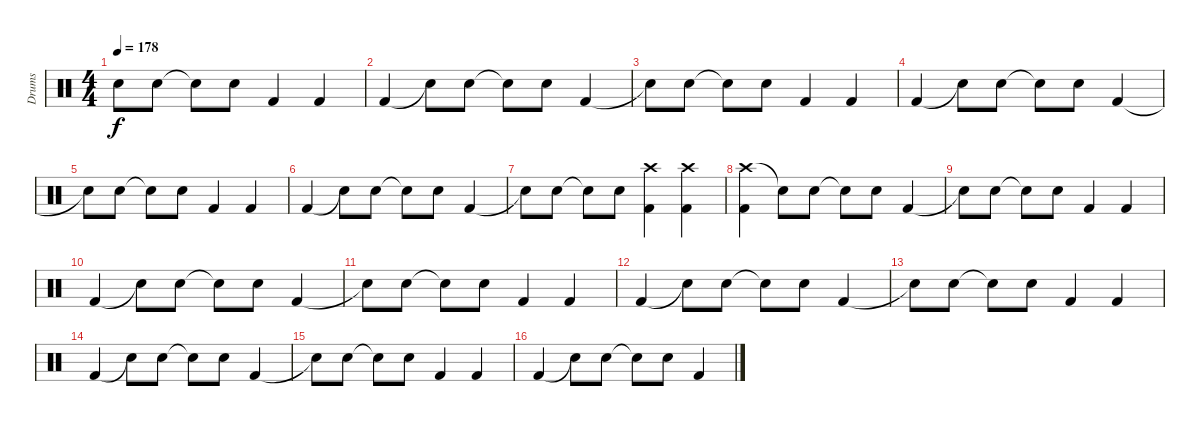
\track ("Drums" "Drums") {instrument percussion}
\staff {score}
\articulation defaults
\ts (4 4)
\tempo 178
\clef neutral
\ks c "Snare (hit)"{t}.8{dy f} "Electric Snare (hit)".8 "Snare (hit)"{t}.8 "Electric Snare (hit)".8 "Kick (hit) 2".4 "Kick (hit) 2".4
|
"Kick (hit) 2".4 "Snare (hit)"{t}.8 "Electric Snare (hit)".8 "Snare (hit)"{t}.8 "Electric Snare (hit)".8 "Kick (hit) 2".4 |
"Snare (hit)"{t}.8 "Electric Snare (hit)".8 "Snare (hit)"{t}.8 "Electric Snare (hit)".8 "Kick (hit) 2".4 "Kick (hit) 2".4 |
"Kick (hit) 2".4 "Snare (hit)"{t}.8 "Electric Snare (hit)".8 "Snare (hit)"{t}.8 "Electric Snare (hit)".8 "Kick (hit) 2".4 |
"Snare (hit)"{t}.8 "Electric Snare (hit)".8 "Snare (hit)"{t}.8 "Electric Snare (hit)".8 "Kick (hit) 2".4 "Kick (hit) 2".4 |
"Kick (hit) 2".4 "Snare (hit)"{t}.8 "Electric Snare (hit)".8 "Snare (hit)"{t}.8 "Electric Snare (hit)".8 "Kick (hit) 2".4 |
"Snare (hit)"{t}.8 "Electric Snare (hit)".8 "Snare (hit)"{t}.8 "Electric Snare (hit)".8 ("Crash high (hit)" "Kick (hit) 2").4 ("Crash high (hit)" "Kick (hit) 2").4 |
("Crash high (hit)" "Kick (hit) 2").4 "Snare (hit)"{t}.8 "Electric Snare (hit)".8 "Snare (hit)"{t}.8 "Electric Snare (hit)".8 "Kick (hit) 2".4 |
"Snare (hit)"{t}.8 "Electric Snare (hit)".8 "Snare (hit)"{t}.8 "Electric Snare (hit)".8 "Kick (hit) 2".4 "Kick (hit) 2".4 |
"Kick (hit) 2".4 "Snare (hit)"{t}.8 "Electric Snare (hit)".8 "Snare (hit)"{t}.8 "Electric Snare (hit)".8 "Kick (hit) 2".4 |
"Snare (hit)"{t}.8 "Electric Snare (hit)".8 "Snare (hit)"{t}.8 "Electric Snare (hit)".8 "Kick (hit) 2".4 "Kick (hit) 2".4 |
"Kick (hit) 2".4 "Snare (hit)"{t}.8 "Electric Snare (hit)".8 "Snare (hit)"{t}.8 "Electric Snare (hit)".8 "Kick (hit) 2".4 |
"Snare (hit)"{t}.8 "Electric Snare (hit)".8 "Snare (hit)"{t}.8 "Electric Snare (hit)".8 "Kick (hit) 2".4 "Kick (hit) 2".4 |
"Kick (hit) 2".4 "Snare (hit)"{t}.8 "Electric Snare (hit)".8 "Snare (hit)"{t}.8 "Electric Snare (hit)".8 "Kick (hit) 2".4 |
"Snare (hit)"{t}.8 "Electric Snare (hit)".8 "Snare (hit)"{t}.8 "Electric Snare (hit)".8 "Kick (hit) 2".4 "Kick (hit) 2".4 |
"Kick (hit) 2".4 "Snare (hit)"{t}.8 "Electric Snare (hit)".8 "Snare (hit)"{t}.8 "Electric Snare (hit)".8 "Kick (hit) 2".4
